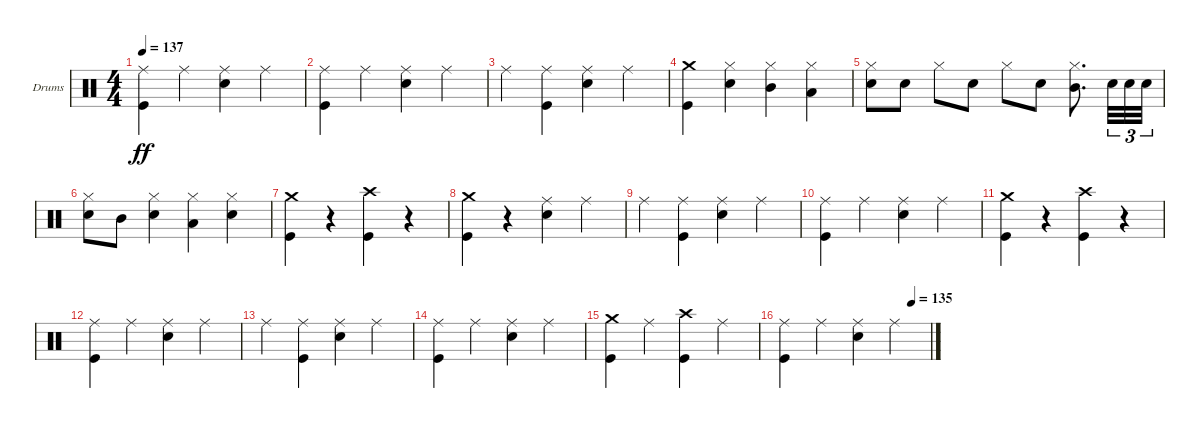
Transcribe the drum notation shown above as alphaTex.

\bracketExtendMode groupsimilarinstruments
\firstSystemTrackNameOrientation horizontal
\otherSystemsTrackNameOrientation horizontal
\track ("Drumkit" "Drums") {instrument percussion}
\staff {score}
\articulation defaults
\ts (4 4)
\tempo 137
\clef neutral
\ks c
("Ride (middle)" "Kick (hit)").4{dy ff} "Ride (middle)".4 ("Ride (middle)" "Snare (hit) 2").4 "Ride (middle)".4 |
("Ride (middle)" "Kick (hit)").4 "Ride (middle)".4 ("Ride (middle)" "Snare (hit) 2").4 "Ride (middle)".4 |
"Ride (middle)".4 ("Ride (middle)" "Kick (hit)").4 ("Ride (middle)" "Snare (hit) 2").4 "Ride (middle)".4 |
("Crash medium (hit)" "Kick (hit)").4 ("Hi-Hat (closed)" "Snare (hit) 2").4 ("Hi-Hat (closed)" "Mid Tom (hit)").4 ("Hi-Hat (closed)" "Low Tom (hit)").4 |
("Hi-Hat (closed)" "Snare (hit) 2").8 "Snare (hit) 2".8 "Hi-Hat (closed)".8 "Snare (hit) 2".8 "Hi-Hat (closed)".8 "Snare (hit) 2".8 ("Hi-Hat (closed)" "Mid Tom (hit)").8{d} "Snare (hit) 2".32{tu (3 2)} "Snare (hit) 2".32{tu (3 2)} "Snare (hit) 2".32{tu (3 2)} |
("Hi-Hat (closed)" "Snare (hit) 2").8 "Mid Tom (hit)".8 ("Hi-Hat (closed)" "Snare (hit) 2").4 ("Hi-Hat (closed)" "Low Tom (hit)").4 ("Hi-Hat (closed)" "Snare (hit) 2").4 |
("Crash medium (hit)" "Kick (hit)").4 r.4 ("Crash high (hit)" "Kick (hit)").4 r.4 |
("Crash medium (hit)" "Kick (hit)").4 r.4 ("Ride (middle)" "Snare (hit) 2").4 "Ride (middle)".4 |
"Ride (middle)".4 ("Ride (middle)" "Kick (hit)").4 ("Ride (middle)" "Snare (hit) 2").4 "Ride (middle)".4 |
("Ride (middle)" "Kick (hit)").4 "Ride (middle)".4 ("Ride (middle)" "Snare (hit) 2").4 "Ride (middle)".4 |
("Crash medium (hit)" "Kick (hit)").4 r.4 ("Crash high (hit)" "Kick (hit)").4 r.4 |
("Ride (middle)" "Kick (hit)").4 "Ride (middle)".4 ("Ride (middle)" "Snare (hit) 2").4 "Ride (middle)".4 |
"Ride (middle)".4 ("Ride (middle)" "Kick (hit)").4 ("Ride (middle)" "Snare (hit) 2").4 "Ride (middle)".4 |
("Ride (middle)" "Kick (hit)").4 "Ride (middle)".4 ("Ride (middle)" "Snare (hit) 2").4 "Ride (middle)".4 |
("Crash medium (hit)" "Kick (hit)").4 "Ride (middle)".4 ("Crash high (hit)" "Kick (hit)").4 "Ride (middle)".4 |
\tempo (135 0.875)
("Ride (middle)" "Kick (hit)").4 "Ride (middle)".4 ("Ride (middle)" "Snare (hit) 2").4 "Ride (middle)".4
